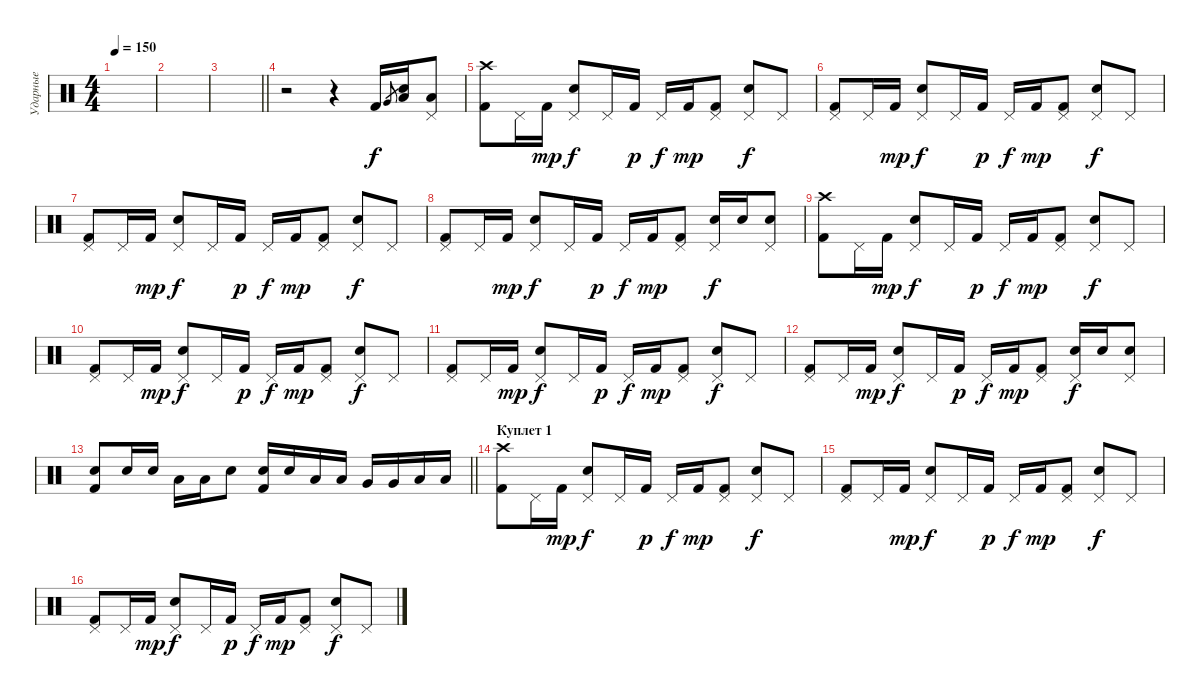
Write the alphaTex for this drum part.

\track ("Ударные" "Ударные") {instrument percussion}
\staff {score}
\articulation defaults
\ts (4 4)
\tempo 150
\clef neutral
\ks c
|
|
\barLineRight lightlight
|
r.2 r.4 "Kick (hit) 2".16 "Very Low Tom (hit)".8{gr} ("Snare (hit) 2" "Low Tom (hit)").16 ("Pedal Hi-Hat (hit)" "Low Floor Tom (hit)").8 |
("Crash high (hit)" "Kick (hit) 2").8 "Pedal Hi-Hat (hit)".16 "Kick (hit) 2".16{dy mp} ("Pedal Hi-Hat (hit)" "Snare (hit) 2").8{dy f} "Pedal Hi-Hat (hit)".16 "Kick (hit) 2".16{dy p} "Pedal Hi-Hat (hit)".16{dy f} "Kick (hit) 2".16{dy mp} ("Pedal Hi-Hat (hit)" "Kick (hit) 2").8 ("Pedal Hi-Hat (hit)" "Snare (hit) 2").8{dy f} "Pedal Hi-Hat (hit)".8 |
("Pedal Hi-Hat (hit)" "Kick (hit) 2").8 "Pedal Hi-Hat (hit)".16 "Kick (hit) 2".16{dy mp} ("Pedal Hi-Hat (hit)" "Snare (hit) 2").8{dy f} "Pedal Hi-Hat (hit)".16 "Kick (hit) 2".16{dy p} "Pedal Hi-Hat (hit)".16{dy f} "Kick (hit) 2".16{dy mp} ("Pedal Hi-Hat (hit)" "Kick (hit) 2").8 ("Pedal Hi-Hat (hit)" "Snare (hit) 2").8{dy f} "Pedal Hi-Hat (hit)".8 |
("Pedal Hi-Hat (hit)" "Kick (hit) 2").8 "Pedal Hi-Hat (hit)".16 "Kick (hit) 2".16{dy mp} ("Pedal Hi-Hat (hit)" "Snare (hit) 2").8{dy f} "Pedal Hi-Hat (hit)".16 "Kick (hit) 2".16{dy p} "Pedal Hi-Hat (hit)".16{dy f} "Kick (hit) 2".16{dy mp} ("Pedal Hi-Hat (hit)" "Kick (hit) 2").8 ("Pedal Hi-Hat (hit)" "Snare (hit) 2").8{dy f} "Pedal Hi-Hat (hit)".8 |
("Pedal Hi-Hat (hit)" "Kick (hit) 2").8 "Pedal Hi-Hat (hit)".16 "Kick (hit) 2".16{dy mp} ("Pedal Hi-Hat (hit)" "Snare (hit) 2").8{dy f} "Pedal Hi-Hat (hit)".16 "Kick (hit) 2".16{dy p} "Pedal Hi-Hat (hit)".16{dy f} "Kick (hit) 2".16{dy mp} ("Pedal Hi-Hat (hit)" "Kick (hit) 2").8 ("Pedal Hi-Hat (hit)" "Snare (hit) 2").16{dy f} "Snare (hit) 2".16 ("Pedal Hi-Hat (hit)" "Snare (hit) 2").8 |
("Crash high (hit)" "Kick (hit) 2").8 "Pedal Hi-Hat (hit)".16 "Kick (hit) 2".16{dy mp} ("Pedal Hi-Hat (hit)" "Snare (hit) 2").8{dy f} "Pedal Hi-Hat (hit)".16 "Kick (hit) 2".16{dy p} "Pedal Hi-Hat (hit)".16{dy f} "Kick (hit) 2".16{dy mp} ("Pedal Hi-Hat (hit)" "Kick (hit) 2").8 ("Pedal Hi-Hat (hit)" "Snare (hit) 2").8{dy f} "Pedal Hi-Hat (hit)".8 |
("Pedal Hi-Hat (hit)" "Kick (hit) 2").8 "Pedal Hi-Hat (hit)".16 "Kick (hit) 2".16{dy mp} ("Pedal Hi-Hat (hit)" "Snare (hit) 2").8{dy f} "Pedal Hi-Hat (hit)".16 "Kick (hit) 2".16{dy p} "Pedal Hi-Hat (hit)".16{dy f} "Kick (hit) 2".16{dy mp} ("Pedal Hi-Hat (hit)" "Kick (hit) 2").8 ("Pedal Hi-Hat (hit)" "Snare (hit) 2").8{dy f} "Pedal Hi-Hat (hit)".8 |
("Pedal Hi-Hat (hit)" "Kick (hit) 2").8 "Pedal Hi-Hat (hit)".16 "Kick (hit) 2".16{dy mp} ("Pedal Hi-Hat (hit)" "Snare (hit) 2").8{dy f} "Pedal Hi-Hat (hit)".16 "Kick (hit) 2".16{dy p} "Pedal Hi-Hat (hit)".16{dy f} "Kick (hit) 2".16{dy mp} ("Pedal Hi-Hat (hit)" "Kick (hit) 2").8 ("Pedal Hi-Hat (hit)" "Snare (hit) 2").8{dy f} "Pedal Hi-Hat (hit)".8 |
("Pedal Hi-Hat (hit)" "Kick (hit) 2").8 "Pedal Hi-Hat (hit)".16 "Kick (hit) 2".16{dy mp} ("Pedal Hi-Hat (hit)" "Snare (hit) 2").8{dy f} "Pedal Hi-Hat (hit)".16 "Kick (hit) 2".16{dy p} "Pedal Hi-Hat (hit)".16{dy f} "Kick (hit) 2".16{dy mp} ("Pedal Hi-Hat (hit)" "Kick (hit) 2").8 ("Pedal Hi-Hat (hit)" "Snare (hit) 2").16{dy f} "Snare (hit) 2".16 ("Pedal Hi-Hat (hit)" "Snare (hit) 2").8 |
\barLineRight lightlight
("Snare (hit) 2" "Kick (hit) 2").8 "Snare (hit) 2".16 "Snare (hit) 2".16 "Low Floor Tom (hit)".16 "Low Floor Tom (hit)".16 "Snare (hit) 2".8 ("Snare (hit) 2" "Kick (hit) 2").16 "Snare (hit) 2".16 "Low Tom (hit)".16 "Low Tom (hit)".16 "Very Low Tom (hit)".16 "Very Low Tom (hit)".16 "Low Floor Tom (hit)".16 "Low Floor Tom (hit)".16 |
\section ("" "Куплет 1")
("Crash high (hit)" "Kick (hit) 2").8 "Pedal Hi-Hat (hit)".16 "Kick (hit) 2".16{dy mp} ("Pedal Hi-Hat (hit)" "Snare (hit) 2").8{dy f} "Pedal Hi-Hat (hit)".16 "Kick (hit) 2".16{dy p} "Pedal Hi-Hat (hit)".16{dy f} "Kick (hit) 2".16{dy mp} ("Pedal Hi-Hat (hit)" "Kick (hit) 2").8 ("Pedal Hi-Hat (hit)" "Snare (hit) 2").8{dy f} "Pedal Hi-Hat (hit)".8 |
("Pedal Hi-Hat (hit)" "Kick (hit) 2").8 "Pedal Hi-Hat (hit)".16 "Kick (hit) 2".16{dy mp} ("Pedal Hi-Hat (hit)" "Snare (hit) 2").8{dy f} "Pedal Hi-Hat (hit)".16 "Kick (hit) 2".16{dy p} "Pedal Hi-Hat (hit)".16{dy f} "Kick (hit) 2".16{dy mp} ("Pedal Hi-Hat (hit)" "Kick (hit) 2").8 ("Pedal Hi-Hat (hit)" "Snare (hit) 2").8{dy f} "Pedal Hi-Hat (hit)".8 |
("Pedal Hi-Hat (hit)" "Kick (hit) 2").8 "Pedal Hi-Hat (hit)".16 "Kick (hit) 2".16{dy mp} ("Pedal Hi-Hat (hit)" "Snare (hit) 2").8{dy f} "Pedal Hi-Hat (hit)".16 "Kick (hit) 2".16{dy p} "Pedal Hi-Hat (hit)".16{dy f} "Kick (hit) 2".16{dy mp} ("Pedal Hi-Hat (hit)" "Kick (hit) 2").8 ("Pedal Hi-Hat (hit)" "Snare (hit) 2").8{dy f} "Pedal Hi-Hat (hit)".8
